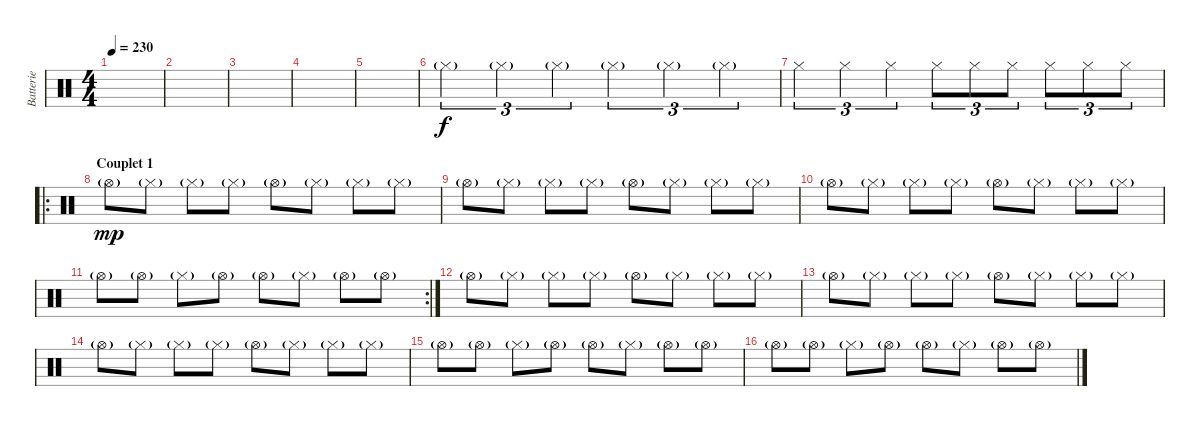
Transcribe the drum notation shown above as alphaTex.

\track ("Batterie" "Batterie") {instrument percussion}
\staff {score}
\articulation defaults
\ts (4 4)
\tempo 230
\clef neutral
\ks c
|
|
|
|
|
"Hi-Hat (closed)"{g}.4{tu (3 2)} "Hi-Hat (closed)"{g}.4{tu (3 2)} "Hi-Hat (closed)"{g}.4{tu (3 2)} "Hi-Hat (closed)"{g}.4{tu (3 2)} "Hi-Hat (closed)"{g}.4{tu (3 2)} "Hi-Hat (closed)"{g}.4{tu (3 2)} |
"Hi-Hat (closed)".4{tu (3 2) dy f} "Hi-Hat (closed)".4{tu (3 2)} "Hi-Hat (closed)".4{tu (3 2)} "Hi-Hat (closed)".8{tu (3 2)} "Hi-Hat (closed)".8{tu (3 2)} "Hi-Hat (closed)".8{tu (3 2)} "Hi-Hat (closed)".8{tu (3 2)} "Hi-Hat (closed)".8{tu (3 2)} "Hi-Hat (closed)".8{tu (3 2)} |
\ro
\section ("" "Couplet 1")
"Hi-Hat (open)"{g}.8{dy mp} "Hi-Hat (closed)"{g}.8 "Hi-Hat (closed)"{g}.8 "Hi-Hat (closed)"{g}.8 "Hi-Hat (open)"{g}.8 "Hi-Hat (closed)"{g}.8 "Hi-Hat (closed)"{g}.8 "Hi-Hat (closed)"{g}.8 |
"Hi-Hat (open)"{g}.8 "Hi-Hat (closed)"{g}.8 "Hi-Hat (closed)"{g}.8 "Hi-Hat (closed)"{g}.8 "Hi-Hat (open)"{g}.8 "Hi-Hat (closed)"{g}.8 "Hi-Hat (closed)"{g}.8 "Hi-Hat (closed)"{g}.8 |
"Hi-Hat (open)"{g}.8 "Hi-Hat (closed)"{g}.8 "Hi-Hat (closed)"{g}.8 "Hi-Hat (closed)"{g}.8 "Hi-Hat (open)"{g}.8 "Hi-Hat (closed)"{g}.8 "Hi-Hat (closed)"{g}.8 "Hi-Hat (closed)"{g}.8 |
\rc 2 "Hi-Hat (open)"{g}.8 "Hi-Hat (open)"{g}.8 "Hi-Hat (closed)"{g}.8 "Hi-Hat (open)"{g}.8 "Hi-Hat (open)"{g}.8 "Hi-Hat (closed)"{g}.8 "Hi-Hat (open)"{g}.8 "Hi-Hat (open)"{g}.8
|
"Hi-Hat (open)"{g}.8 "Hi-Hat (closed)"{g}.8 "Hi-Hat (closed)"{g}.8 "Hi-Hat (closed)"{g}.8 "Hi-Hat (open)"{g}.8 "Hi-Hat (closed)"{g}.8 "Hi-Hat (closed)"{g}.8 "Hi-Hat (closed)"{g}.8 |
"Hi-Hat (open)"{g}.8 "Hi-Hat (closed)"{g}.8 "Hi-Hat (closed)"{g}.8 "Hi-Hat (closed)"{g}.8 "Hi-Hat (open)"{g}.8 "Hi-Hat (closed)"{g}.8 "Hi-Hat (closed)"{g}.8 "Hi-Hat (closed)"{g}.8 |
"Hi-Hat (open)"{g}.8 "Hi-Hat (closed)"{g}.8 "Hi-Hat (closed)"{g}.8 "Hi-Hat (closed)"{g}.8 "Hi-Hat (open)"{g}.8 "Hi-Hat (closed)"{g}.8 "Hi-Hat (closed)"{g}.8 "Hi-Hat (closed)"{g}.8 |
"Hi-Hat (open)"{g}.8 "Hi-Hat (open)"{g}.8 "Hi-Hat (closed)"{g}.8 "Hi-Hat (open)"{g}.8 "Hi-Hat (open)"{g}.8 "Hi-Hat (closed)"{g}.8 "Hi-Hat (open)"{g}.8 "Hi-Hat (open)"{g}.8 |
"Hi-Hat (open)"{g}.8 "Hi-Hat (open)"{g}.8 "Hi-Hat (closed)"{g}.8 "Hi-Hat (open)"{g}.8 "Hi-Hat (open)"{g}.8 "Hi-Hat (closed)"{g}.8 "Hi-Hat (open)"{g}.8 "Hi-Hat (open)"{g}.8
